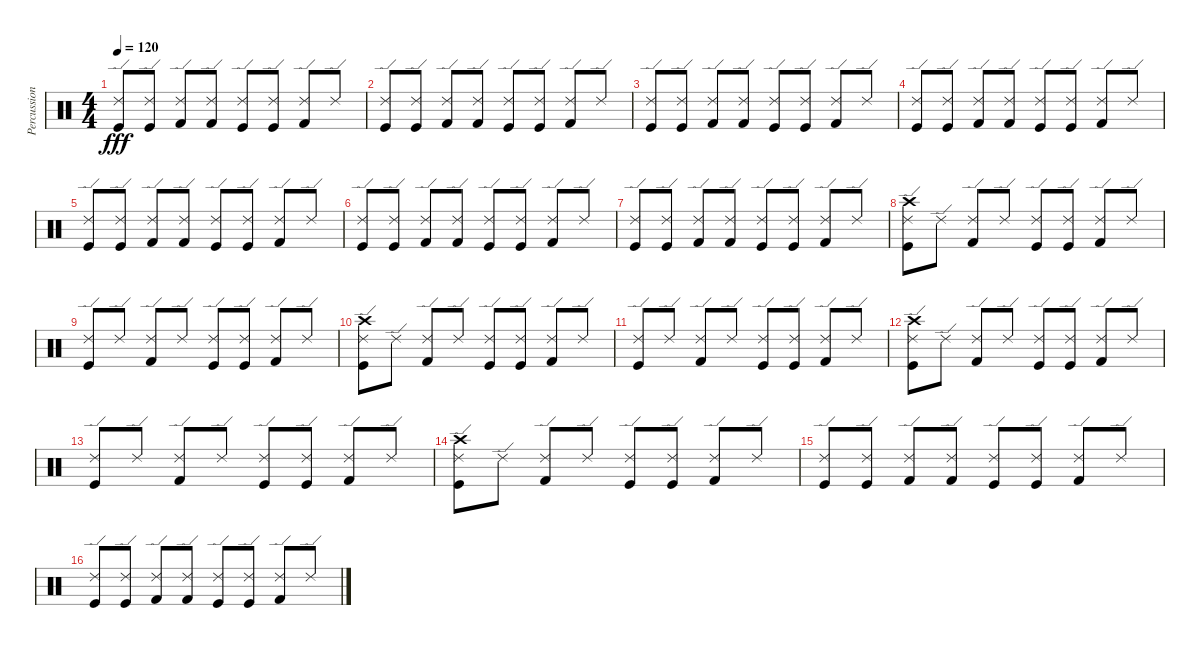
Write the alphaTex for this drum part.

\track ("Percussion" "Percussion") {instrument percussion}
\staff {score}
\articulation defaults
\ts (4 4)
\tempo 120
\clef neutral
\ks c
("Kick (hit)" "Ride (edge) 2").8{dy fff} ("Kick (hit)" "Ride (edge) 2").8 ("Kick (hit) 2" "Ride (edge) 2").8 ("Kick (hit) 2" "Ride (edge) 2").8 ("Kick (hit)" "Ride (edge) 2").8 ("Kick (hit)" "Ride (edge) 2").8 ("Kick (hit) 2" "Ride (edge) 2").8 "Ride (edge) 2".8 |
("Kick (hit)" "Ride (edge) 2").8 ("Kick (hit)" "Ride (edge) 2").8 ("Kick (hit) 2" "Ride (edge) 2").8 ("Kick (hit) 2" "Ride (edge) 2").8 ("Kick (hit)" "Ride (edge) 2").8 ("Kick (hit)" "Ride (edge) 2").8 ("Kick (hit) 2" "Ride (edge) 2").8 "Ride (edge) 2".8 |
("Kick (hit)" "Ride (edge) 2").8 ("Kick (hit)" "Ride (edge) 2").8 ("Kick (hit) 2" "Ride (edge) 2").8 ("Kick (hit) 2" "Ride (edge) 2").8 ("Kick (hit)" "Ride (edge) 2").8 ("Kick (hit)" "Ride (edge) 2").8 ("Kick (hit) 2" "Ride (edge) 2").8 "Ride (edge) 2".8 |
("Kick (hit)" "Ride (edge) 2").8 ("Kick (hit)" "Ride (edge) 2").8 ("Kick (hit) 2" "Ride (edge) 2").8 ("Kick (hit) 2" "Ride (edge) 2").8 ("Kick (hit)" "Ride (edge) 2").8 ("Kick (hit)" "Ride (edge) 2").8 ("Kick (hit) 2" "Ride (edge) 2").8 "Ride (edge) 2".8 |
("Kick (hit)" "Ride (edge) 2").8 ("Kick (hit)" "Ride (edge) 2").8 ("Kick (hit) 2" "Ride (edge) 2").8 ("Kick (hit) 2" "Ride (edge) 2").8 ("Kick (hit)" "Ride (edge) 2").8 ("Kick (hit)" "Ride (edge) 2").8 ("Kick (hit) 2" "Ride (edge) 2").8 "Ride (edge) 2".8 |
("Kick (hit)" "Ride (edge) 2").8 ("Kick (hit)" "Ride (edge) 2").8 ("Kick (hit) 2" "Ride (edge) 2").8 ("Kick (hit) 2" "Ride (edge) 2").8 ("Kick (hit)" "Ride (edge) 2").8 ("Kick (hit)" "Ride (edge) 2").8 ("Kick (hit) 2" "Ride (edge) 2").8 "Ride (edge) 2".8 |
("Kick (hit)" "Ride (edge) 2").8 ("Kick (hit)" "Ride (edge) 2").8 ("Kick (hit) 2" "Ride (edge) 2").8 ("Kick (hit) 2" "Ride (edge) 2").8 ("Kick (hit)" "Ride (edge) 2").8 ("Kick (hit)" "Ride (edge) 2").8 ("Kick (hit) 2" "Ride (edge) 2").8 "Ride (edge) 2".8 |
("Kick (hit)" "Crash high (hit)" "Ride (edge) 2").8 "Ride (edge) 2".8 ("Kick (hit) 2" "Ride (edge) 2").8 "Ride (edge) 2".8 ("Kick (hit)" "Ride (edge) 2").8 ("Kick (hit)" "Ride (edge) 2").8 ("Kick (hit) 2" "Ride (edge) 2").8 "Ride (edge) 2".8 |
("Kick (hit)" "Ride (edge) 2").8 "Ride (edge) 2".8 ("Kick (hit) 2" "Ride (edge) 2").8 "Ride (edge) 2".8 ("Kick (hit)" "Ride (edge) 2").8 ("Kick (hit)" "Ride (edge) 2").8 ("Kick (hit) 2" "Ride (edge) 2").8 "Ride (edge) 2".8 |
("Kick (hit)" "Crash high (hit)" "Ride (edge) 2").8 "Ride (edge) 2".8 ("Kick (hit) 2" "Ride (edge) 2").8 "Ride (edge) 2".8 ("Kick (hit)" "Ride (edge) 2").8 ("Kick (hit)" "Ride (edge) 2").8 ("Kick (hit) 2" "Ride (edge) 2").8 "Ride (edge) 2".8 |
("Kick (hit)" "Ride (edge) 2").8 "Ride (edge) 2".8 ("Kick (hit) 2" "Ride (edge) 2").8 "Ride (edge) 2".8 ("Kick (hit)" "Ride (edge) 2").8 ("Kick (hit)" "Ride (edge) 2").8 ("Kick (hit) 2" "Ride (edge) 2").8 "Ride (edge) 2".8 |
("Kick (hit)" "Crash high (hit)" "Ride (edge) 2").8 "Ride (edge) 2".8 ("Kick (hit) 2" "Ride (edge) 2").8 "Ride (edge) 2".8 ("Kick (hit)" "Ride (edge) 2").8 ("Kick (hit)" "Ride (edge) 2").8 ("Kick (hit) 2" "Ride (edge) 2").8 "Ride (edge) 2".8 |
("Kick (hit)" "Ride (edge) 2").8 "Ride (edge) 2".8 ("Kick (hit) 2" "Ride (edge) 2").8 "Ride (edge) 2".8 ("Kick (hit)" "Ride (edge) 2").8 ("Kick (hit)" "Ride (edge) 2").8 ("Kick (hit) 2" "Ride (edge) 2").8 "Ride (edge) 2".8 |
("Kick (hit)" "Crash high (hit)" "Ride (edge) 2").8 "Ride (edge) 2".8 ("Kick (hit) 2" "Ride (edge) 2").8 "Ride (edge) 2".8 ("Kick (hit)" "Ride (edge) 2").8 ("Kick (hit)" "Ride (edge) 2").8 ("Kick (hit) 2" "Ride (edge) 2").8 "Ride (edge) 2".8 |
("Kick (hit)" "Ride (edge) 2").8 ("Kick (hit)" "Ride (edge) 2").8 ("Kick (hit) 2" "Ride (edge) 2").8 ("Kick (hit) 2" "Ride (edge) 2").8 ("Kick (hit)" "Ride (edge) 2").8 ("Kick (hit)" "Ride (edge) 2").8 ("Kick (hit) 2" "Ride (edge) 2").8 "Ride (edge) 2".8 |
("Kick (hit)" "Ride (edge) 2").8 ("Kick (hit)" "Ride (edge) 2").8 ("Kick (hit) 2" "Ride (edge) 2").8 ("Kick (hit) 2" "Ride (edge) 2").8 ("Kick (hit)" "Ride (edge) 2").8 ("Kick (hit)" "Ride (edge) 2").8 ("Kick (hit) 2" "Ride (edge) 2").8 "Ride (edge) 2".8
